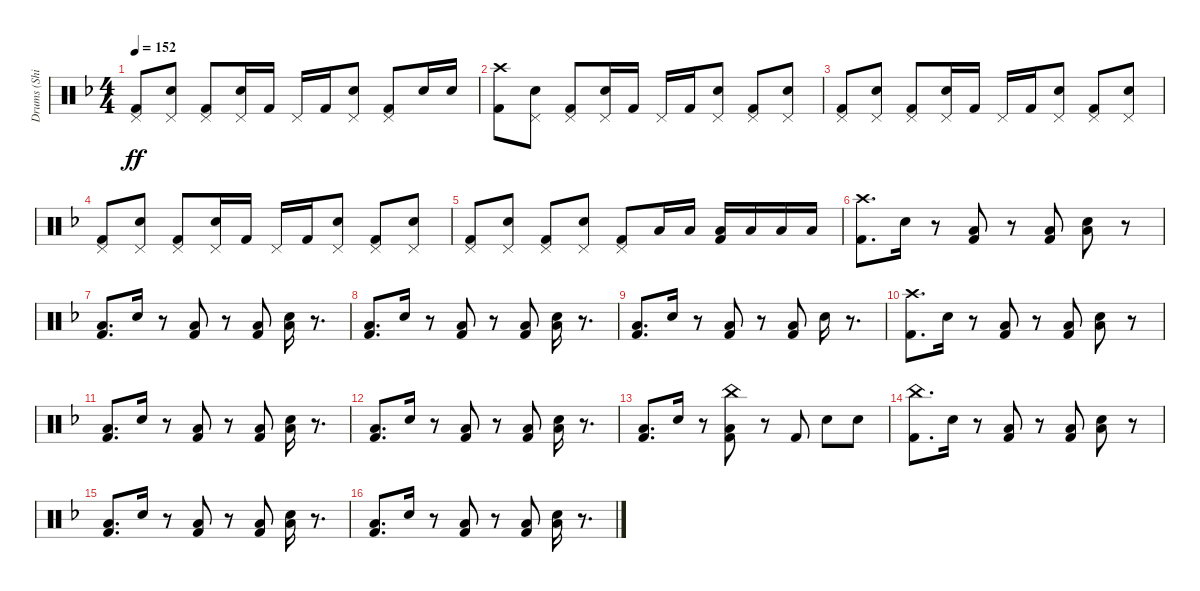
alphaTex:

\track ("Drums (Shinya ! Shinya !)" "Drums (Shi") {instrument percussion}
\staff {score}
\articulation defaults
\ts (4 4)
\tempo 152
\clef neutral
\ks f
("Kick (hit) 2" "Pedal Hi-Hat (hit)").8{dy ff} ("Pedal Hi-Hat (hit)" "Electric Snare (hit)").8 ("Kick (hit) 2" "Pedal Hi-Hat (hit)").8 ("Pedal Hi-Hat (hit)" "Electric Snare (hit)").16 "Kick (hit) 2".16 "Pedal Hi-Hat (hit)".16 "Kick (hit) 2".16 ("Pedal Hi-Hat (hit)" "Electric Snare (hit)").8 ("Kick (hit) 2" "Pedal Hi-Hat (hit)").8 "Electric Snare (hit)".16 "Electric Snare (hit)".16 |
("Kick (hit) 2" "Crash high (hit)").8 ("Pedal Hi-Hat (hit)" "Electric Snare (hit)").8 ("Kick (hit) 2" "Pedal Hi-Hat (hit)").8 ("Pedal Hi-Hat (hit)" "Electric Snare (hit)").16 "Kick (hit) 2".16 "Pedal Hi-Hat (hit)".16 "Kick (hit) 2".16 ("Pedal Hi-Hat (hit)" "Electric Snare (hit)").8 ("Kick (hit) 2" "Pedal Hi-Hat (hit)").8 ("Pedal Hi-Hat (hit)" "Electric Snare (hit)").8 |
("Kick (hit) 2" "Pedal Hi-Hat (hit)").8 ("Pedal Hi-Hat (hit)" "Electric Snare (hit)").8 ("Kick (hit) 2" "Pedal Hi-Hat (hit)").8 ("Pedal Hi-Hat (hit)" "Electric Snare (hit)").16 "Kick (hit) 2".16 "Pedal Hi-Hat (hit)".16 "Kick (hit) 2".16 ("Pedal Hi-Hat (hit)" "Electric Snare (hit)").8 ("Kick (hit) 2" "Pedal Hi-Hat (hit)").8 ("Pedal Hi-Hat (hit)" "Electric Snare (hit)").8 |
("Kick (hit) 2" "Pedal Hi-Hat (hit)").8 ("Pedal Hi-Hat (hit)" "Electric Snare (hit)").8 ("Kick (hit) 2" "Pedal Hi-Hat (hit)").8 ("Pedal Hi-Hat (hit)" "Electric Snare (hit)").16 "Kick (hit) 2".16 "Pedal Hi-Hat (hit)".16 "Kick (hit) 2".16 ("Pedal Hi-Hat (hit)" "Electric Snare (hit)").8 ("Kick (hit) 2" "Pedal Hi-Hat (hit)").8 ("Pedal Hi-Hat (hit)" "Electric Snare (hit)").8 |
("Kick (hit) 2" "Pedal Hi-Hat (hit)").8 ("Pedal Hi-Hat (hit)" "Electric Snare (hit)").8 ("Kick (hit) 2" "Pedal Hi-Hat (hit)").8 ("Pedal Hi-Hat (hit)" "Electric Snare (hit)").8 ("Pedal Hi-Hat (hit)" "Kick (hit) 2").8 "Low Tom (hit)".16 "Low Tom (hit)".16 ("Kick (hit) 2" "Low Tom (hit)").16 "Low Tom (hit)".16 "Low Floor Tom (hit)".16 "Low Floor Tom (hit)".16 |
("Kick (hit) 2" "Crash high (hit)").8{d} "Electric Snare (hit)".16 r.8 ("Kick (hit) 2" "Low Floor Tom (hit)").8 r.8 ("Kick (hit) 2" "Low Floor Tom (hit)").8 ("Electric Snare (hit)" "Low Tom (hit)").8 r.8 |
("Kick (hit) 2" "Low Floor Tom (hit)").8{d} "Electric Snare (hit)".16 r.8 ("Kick (hit) 2" "Low Floor Tom (hit)").8 r.8 ("Kick (hit) 2" "Low Floor Tom (hit)").8 ("Electric Snare (hit)" "Low Tom (hit)").16 r.8{d} |
("Kick (hit) 2" "Low Floor Tom (hit)").8{d} "Electric Snare (hit)".16 r.8 ("Kick (hit) 2" "Low Floor Tom (hit)").8 r.8 ("Kick (hit) 2" "Low Floor Tom (hit)").8 ("Electric Snare (hit)" "Low Tom (hit)").16 r.8{d} |
("Kick (hit) 2" "Low Floor Tom (hit)").8{d} "Electric Snare (hit)".16 r.8 ("Kick (hit) 2" "Low Floor Tom (hit)").8 r.8 ("Kick (hit) 2" "Low Floor Tom (hit)").8 "Electric Snare (hit)".16 r.8{d} |
("Kick (hit) 2" "Crash high (hit)").8{d} "Electric Snare (hit)".16 r.8 ("Kick (hit) 2" "Low Floor Tom (hit)").8 r.8 ("Kick (hit) 2" "Low Floor Tom (hit)").8 ("Electric Snare (hit)" "Low Tom (hit)").8 r.8 |
("Kick (hit) 2" "Low Floor Tom (hit)").8{d} "Electric Snare (hit)".16 r.8 ("Kick (hit) 2" "Low Floor Tom (hit)").8 r.8 ("Kick (hit) 2" "Low Floor Tom (hit)").8 ("Electric Snare (hit)" "Low Tom (hit)").16 r.8{d} |
("Kick (hit) 2" "Low Floor Tom (hit)").8{d} "Electric Snare (hit)".16 r.8 ("Kick (hit) 2" "Low Floor Tom (hit)").8 r.8 ("Kick (hit) 2" "Low Floor Tom (hit)").8 ("Electric Snare (hit)" "Low Tom (hit)").16 r.8{d} |
("Kick (hit) 2" "Low Floor Tom (hit)").8{d} "Electric Snare (hit)".16 r.8 ("Kick (hit) 2" "China (hit)" "Low Floor Tom (hit)").8 r.8 "Kick (hit) 2".8 "Electric Snare (hit)".8 "Electric Snare (hit)".8 |
("Kick (hit) 2" "China (hit)").8{d} "Electric Snare (hit)".16 r.8 ("Kick (hit) 2" "Low Floor Tom (hit)").8 r.8 ("Kick (hit) 2" "Low Floor Tom (hit)").8 ("Electric Snare (hit)" "Low Tom (hit)").8 r.8 |
("Kick (hit) 2" "Low Floor Tom (hit)").8{d} "Electric Snare (hit)".16 r.8 ("Kick (hit) 2" "Low Floor Tom (hit)").8 r.8 ("Kick (hit) 2" "Low Floor Tom (hit)").8 ("Electric Snare (hit)" "Low Tom (hit)").16 r.8{d} |
("Kick (hit) 2" "Low Floor Tom (hit)").8{d} "Electric Snare (hit)".16 r.8 ("Kick (hit) 2" "Low Floor Tom (hit)").8 r.8 ("Kick (hit) 2" "Low Floor Tom (hit)").8 ("Electric Snare (hit)" "Low Tom (hit)").16 r.8{d}
